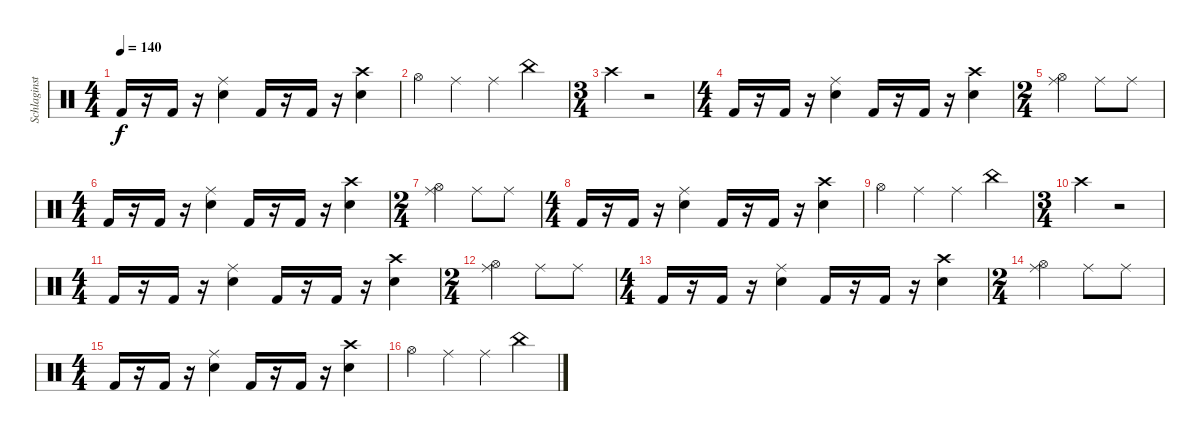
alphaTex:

\track ("Schlaginstrumente - Auswahl" "Schlaginst") {instrument percussion}
\staff {score}
\articulation defaults
\ts (4 4)
\tempo 140
\clef neutral
\ks c "Kick (hit) 2".16{dy f}
r.16 "Kick (hit) 2".16 r.16 ("Snare (hit) 2" "Ride (middle)").4 "Kick (hit) 2".16 r.16 "Kick (hit) 2".16 r.16 ("Snare (hit) 2" "Crash high (hit)").4 |
"Hi-Hat (open)".4 "Ride (middle)".4 "Ride (middle)".4 "China (hit)".4 |
\ts (3 4)
"Crash high (hit)".4 r.2 |
\ts (4 4)
"Kick (hit) 2".16 r.16 "Kick (hit) 2".16 r.16 ("Snare (hit) 2" "Ride (middle)").4 "Kick (hit) 2".16 r.16 "Kick (hit) 2".16 r.16 ("Snare (hit) 2" "Crash high (hit)").4 |
\ts (2 4)
("Hi-Hat (open)" "Ride (middle)").4 "Ride (middle)".8 "Ride (middle)".8 |
\ts (4 4)
"Kick (hit) 2".16 r.16 "Kick (hit) 2".16 r.16 ("Snare (hit) 2" "Ride (middle)").4 "Kick (hit) 2".16 r.16 "Kick (hit) 2".16 r.16 ("Snare (hit) 2" "Crash high (hit)").4 |
\ts (2 4)
("Hi-Hat (open)" "Ride (middle)").4 "Ride (middle)".8 "Ride (middle)".8 |
\ts (4 4)
"Kick (hit) 2".16 r.16 "Kick (hit) 2".16 r.16 ("Snare (hit) 2" "Ride (middle)").4 "Kick (hit) 2".16 r.16 "Kick (hit) 2".16 r.16 ("Snare (hit) 2" "Crash high (hit)").4 |
"Hi-Hat (open)".4 "Ride (middle)".4 "Ride (middle)".4 "China (hit)".4 |
\ts (3 4)
"Crash high (hit)".4 r.2 |
\ts (4 4)
"Kick (hit) 2".16 r.16 "Kick (hit) 2".16 r.16 ("Snare (hit) 2" "Ride (middle)").4 "Kick (hit) 2".16 r.16 "Kick (hit) 2".16 r.16 ("Snare (hit) 2" "Crash high (hit)").4 |
\ts (2 4)
("Hi-Hat (open)" "Ride (middle)").4 "Ride (middle)".8 "Ride (middle)".8 |
\ts (4 4)
"Kick (hit) 2".16 r.16 "Kick (hit) 2".16 r.16 ("Snare (hit) 2" "Ride (middle)").4 "Kick (hit) 2".16 r.16 "Kick (hit) 2".16 r.16 ("Snare (hit) 2" "Crash high (hit)").4 |
\ts (2 4)
("Hi-Hat (open)" "Ride (middle)").4 "Ride (middle)".8 "Ride (middle)".8 |
\ts (4 4)
"Kick (hit) 2".16 r.16 "Kick (hit) 2".16 r.16 ("Snare (hit) 2" "Ride (middle)").4 "Kick (hit) 2".16 r.16 "Kick (hit) 2".16 r.16 ("Snare (hit) 2" "Crash high (hit)").4 |
"Hi-Hat (open)".4 "Ride (middle)".4 "Ride (middle)".4 "China (hit)".4
